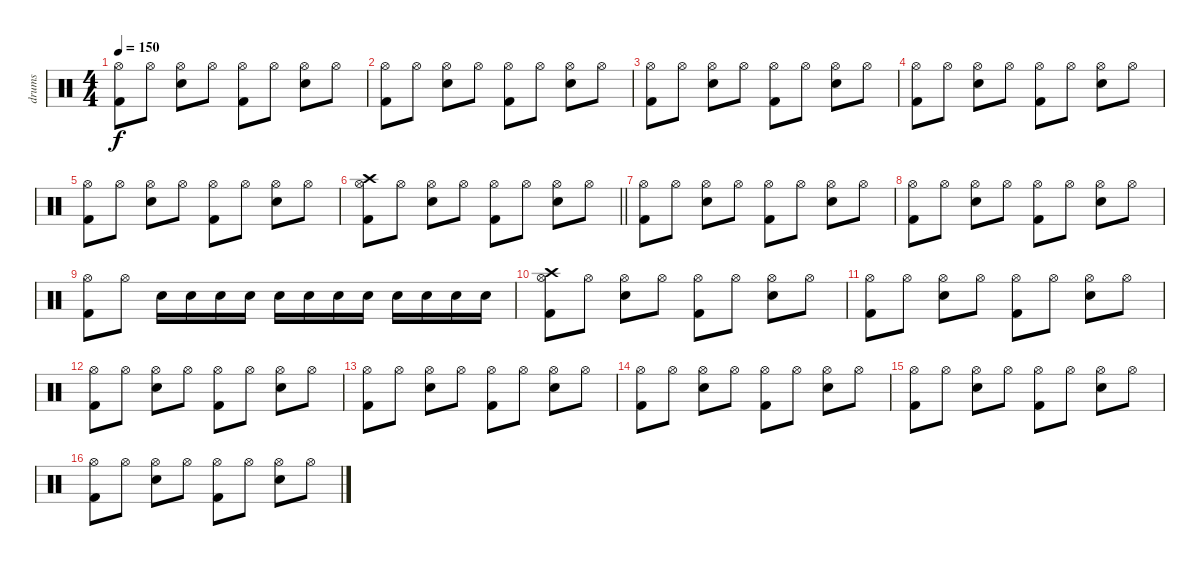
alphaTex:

\track ("drums" "drums") {instrument percussion}
\staff {score}
\articulation defaults
\ts (4 4)
\tempo 150
\clef neutral
\ks c
("Kick (hit) 2" "Hi-Hat (open)").8{dy f} "Hi-Hat (open)".8 ("Electric Snare (hit)" "Hi-Hat (open)").8 "Hi-Hat (open)".8 ("Kick (hit) 2" "Hi-Hat (open)").8 "Hi-Hat (open)".8 ("Electric Snare (hit)" "Hi-Hat (open)").8 "Hi-Hat (open)".8 |
("Kick (hit) 2" "Hi-Hat (open)").8 "Hi-Hat (open)".8 ("Electric Snare (hit)" "Hi-Hat (open)").8 "Hi-Hat (open)".8 ("Kick (hit) 2" "Hi-Hat (open)").8 "Hi-Hat (open)".8 ("Electric Snare (hit)" "Hi-Hat (open)").8 "Hi-Hat (open)".8 |
("Kick (hit) 2" "Hi-Hat (open)").8 "Hi-Hat (open)".8 ("Electric Snare (hit)" "Hi-Hat (open)").8 "Hi-Hat (open)".8 ("Kick (hit) 2" "Hi-Hat (open)").8 "Hi-Hat (open)".8 ("Electric Snare (hit)" "Hi-Hat (open)").8 "Hi-Hat (open)".8 |
("Kick (hit) 2" "Hi-Hat (open)").8 "Hi-Hat (open)".8 ("Electric Snare (hit)" "Hi-Hat (open)").8 "Hi-Hat (open)".8 ("Kick (hit) 2" "Hi-Hat (open)").8 "Hi-Hat (open)".8 ("Electric Snare (hit)" "Hi-Hat (open)").8 "Hi-Hat (open)".8 |
("Kick (hit) 2" "Hi-Hat (open)").8 "Hi-Hat (open)".8 ("Electric Snare (hit)" "Hi-Hat (open)").8 "Hi-Hat (open)".8 ("Kick (hit) 2" "Hi-Hat (open)").8 "Hi-Hat (open)".8 ("Electric Snare (hit)" "Hi-Hat (open)").8 "Hi-Hat (open)".8 |
\barLineRight lightlight
("Kick (hit) 2" "Hi-Hat (open)" "Crash high (hit)").8 "Hi-Hat (open)".8 ("Electric Snare (hit)" "Hi-Hat (open)").8 "Hi-Hat (open)".8 ("Kick (hit) 2" "Hi-Hat (open)").8 "Hi-Hat (open)".8 ("Electric Snare (hit)" "Hi-Hat (open)").8 "Hi-Hat (open)".8 |
("Kick (hit) 2" "Hi-Hat (open)").8 "Hi-Hat (open)".8 ("Electric Snare (hit)" "Hi-Hat (open)").8 "Hi-Hat (open)".8 ("Kick (hit) 2" "Hi-Hat (open)").8 "Hi-Hat (open)".8 ("Electric Snare (hit)" "Hi-Hat (open)").8 "Hi-Hat (open)".8 |
("Kick (hit) 2" "Hi-Hat (open)").8 "Hi-Hat (open)".8 ("Electric Snare (hit)" "Hi-Hat (open)").8 "Hi-Hat (open)".8 ("Kick (hit) 2" "Hi-Hat (open)").8 "Hi-Hat (open)".8 ("Electric Snare (hit)" "Hi-Hat (open)").8 "Hi-Hat (open)".8 |
("Kick (hit) 2" "Hi-Hat (open)").8 "Hi-Hat (open)".8 "Electric Snare (hit)".16 "Electric Snare (hit)".16 "Electric Snare (hit)".16 "Electric Snare (hit)".16 "Electric Snare (hit)".16 "Electric Snare (hit)".16 "Electric Snare (hit)".16 "Electric Snare (hit)".16 "Electric Snare (hit)".16 "Electric Snare (hit)".16 "Electric Snare (hit)".16 "Electric Snare (hit)".16 |
("Kick (hit) 2" "Hi-Hat (open)" "Crash high (hit)").8 "Hi-Hat (open)".8 ("Electric Snare (hit)" "Hi-Hat (open)").8 "Hi-Hat (open)".8 ("Kick (hit) 2" "Hi-Hat (open)").8 "Hi-Hat (open)".8 ("Electric Snare (hit)" "Hi-Hat (open)").8 "Hi-Hat (open)".8 |
("Kick (hit) 2" "Hi-Hat (open)").8 "Hi-Hat (open)".8 ("Electric Snare (hit)" "Hi-Hat (open)").8 "Hi-Hat (open)".8 ("Kick (hit) 2" "Hi-Hat (open)").8 "Hi-Hat (open)".8 ("Electric Snare (hit)" "Hi-Hat (open)").8 "Hi-Hat (open)".8 |
("Kick (hit) 2" "Hi-Hat (open)").8 "Hi-Hat (open)".8 ("Electric Snare (hit)" "Hi-Hat (open)").8 "Hi-Hat (open)".8 ("Kick (hit) 2" "Hi-Hat (open)").8 "Hi-Hat (open)".8 ("Electric Snare (hit)" "Hi-Hat (open)").8 "Hi-Hat (open)".8 |
("Kick (hit) 2" "Hi-Hat (open)").8 "Hi-Hat (open)".8 ("Electric Snare (hit)" "Hi-Hat (open)").8 "Hi-Hat (open)".8 ("Kick (hit) 2" "Hi-Hat (open)").8 "Hi-Hat (open)".8 ("Electric Snare (hit)" "Hi-Hat (open)").8 "Hi-Hat (open)".8 |
("Kick (hit) 2" "Hi-Hat (open)").8 "Hi-Hat (open)".8 ("Electric Snare (hit)" "Hi-Hat (open)").8 "Hi-Hat (open)".8 ("Kick (hit) 2" "Hi-Hat (open)").8 "Hi-Hat (open)".8 ("Electric Snare (hit)" "Hi-Hat (open)").8 "Hi-Hat (open)".8 |
("Kick (hit) 2" "Hi-Hat (open)").8 "Hi-Hat (open)".8 ("Electric Snare (hit)" "Hi-Hat (open)").8 "Hi-Hat (open)".8 ("Kick (hit) 2" "Hi-Hat (open)").8 "Hi-Hat (open)".8 ("Electric Snare (hit)" "Hi-Hat (open)").8 "Hi-Hat (open)".8 |
("Kick (hit) 2" "Hi-Hat (open)").8 "Hi-Hat (open)".8 ("Electric Snare (hit)" "Hi-Hat (open)").8 "Hi-Hat (open)".8 ("Kick (hit) 2" "Hi-Hat (open)").8 "Hi-Hat (open)".8 ("Electric Snare (hit)" "Hi-Hat (open)").8 "Hi-Hat (open)".8
